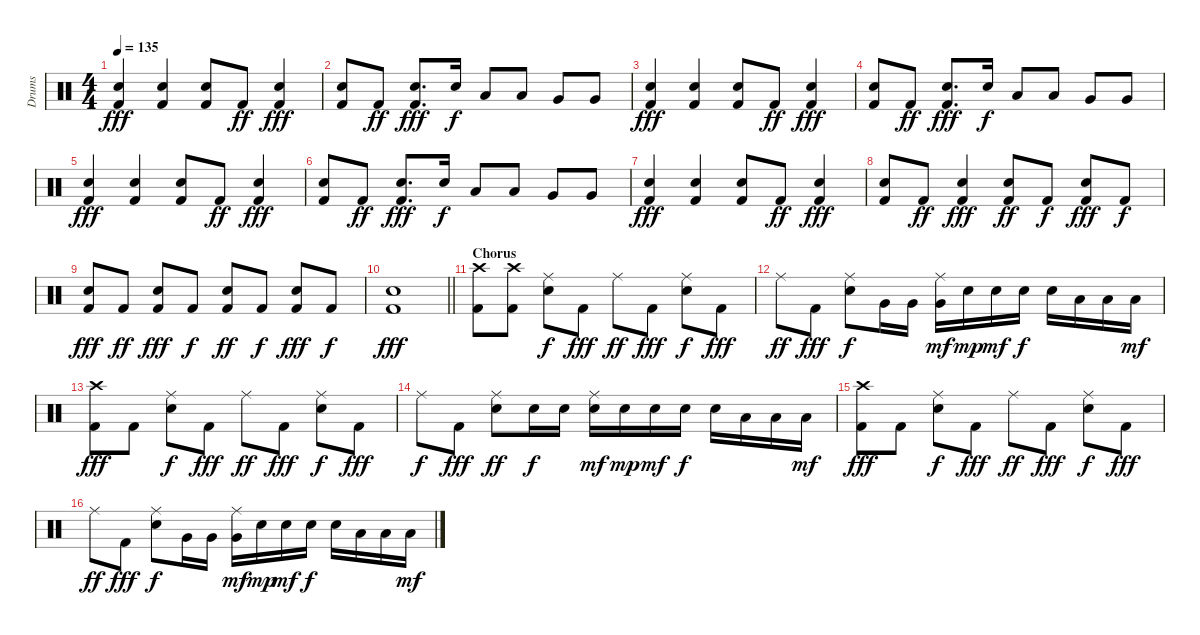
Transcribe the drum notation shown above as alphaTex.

\track ("Drums" "Drums") {instrument percussion}
\staff {score}
\articulation defaults
\ts (4 4)
\tempo 135
\clef neutral
\ks c
("Electric Snare (hit)" "Kick (hit) 2").4{dy fff} ("Electric Snare (hit)" "Kick (hit) 2").4 ("Electric Snare (hit)" "Kick (hit) 2").8 "Kick (hit) 2".8{dy ff} ("Electric Snare (hit)" "Kick (hit) 2").4{dy fff} |
("Electric Snare (hit)" "Kick (hit) 2").8 "Kick (hit) 2".8{dy ff} ("Electric Snare (hit)" "Kick (hit) 2").8{d dy fff} "Electric Snare (hit)".16{dy f} "Low Tom (hit)".8 "Low Tom (hit)".8 "Very Low Tom (hit)".8 "Very Low Tom (hit)".8 |
("Electric Snare (hit)" "Kick (hit) 2").4{dy fff} ("Electric Snare (hit)" "Kick (hit) 2").4 ("Electric Snare (hit)" "Kick (hit) 2").8 "Kick (hit) 2".8{dy ff} ("Electric Snare (hit)" "Kick (hit) 2").4{dy fff} |
("Electric Snare (hit)" "Kick (hit) 2").8 "Kick (hit) 2".8{dy ff} ("Electric Snare (hit)" "Kick (hit) 2").8{d dy fff} "Electric Snare (hit)".16{dy f} "Low Tom (hit)".8 "Low Tom (hit)".8 "Very Low Tom (hit)".8 "Very Low Tom (hit)".8 |
("Electric Snare (hit)" "Kick (hit) 2").4{dy fff} ("Electric Snare (hit)" "Kick (hit) 2").4 ("Electric Snare (hit)" "Kick (hit) 2").8 "Kick (hit) 2".8{dy ff} ("Electric Snare (hit)" "Kick (hit) 2").4{dy fff} |
("Electric Snare (hit)" "Kick (hit) 2").8 "Kick (hit) 2".8{dy ff} ("Electric Snare (hit)" "Kick (hit) 2").8{d dy fff} "Electric Snare (hit)".16{dy f} "Low Tom (hit)".8 "Low Tom (hit)".8 "Very Low Tom (hit)".8 "Very Low Tom (hit)".8 |
("Electric Snare (hit)" "Kick (hit) 2").4{dy fff} ("Electric Snare (hit)" "Kick (hit) 2").4 ("Electric Snare (hit)" "Kick (hit) 2").8 "Kick (hit) 2".8{dy ff} ("Electric Snare (hit)" "Kick (hit) 2").4{dy fff} |
("Electric Snare (hit)" "Kick (hit) 2").8 "Kick (hit) 2".8{dy ff} ("Electric Snare (hit)" "Kick (hit) 2").4{dy fff} ("Electric Snare (hit)" "Kick (hit) 2").8{dy ff} "Kick (hit) 2".8{dy f} ("Electric Snare (hit)" "Kick (hit) 2").8{dy fff} "Kick (hit) 2".8{dy f} |
("Electric Snare (hit)" "Kick (hit) 2").8{dy fff} "Kick (hit) 2".8{dy ff} ("Electric Snare (hit)" "Kick (hit) 2").8{dy fff} "Kick (hit) 2".8{dy f} ("Electric Snare (hit)" "Kick (hit) 2").8{dy ff} "Kick (hit) 2".8{dy f} ("Electric Snare (hit)" "Kick (hit) 2").8{dy fff} "Kick (hit) 2".8{dy f} |
\barLineRight lightlight
("Electric Snare (hit)" "Kick (hit) 2").1{dy fff} |
\section ("" "Chorus")
("Crash high (hit)" "Kick (hit) 2").8 ("Crash high (hit)" "Kick (hit) 2").8 ("Ride (middle)" "Electric Snare (hit)").8{dy f} "Kick (hit) 2".8{dy fff} "Ride (middle)".8{dy ff} "Kick (hit) 2".8{dy fff} ("Ride (middle)" "Electric Snare (hit)").8{dy f} "Kick (hit) 2".8{dy fff} |
"Ride (middle)".8{dy ff} "Kick (hit) 2".8{dy fff} ("Ride (middle)" "Electric Snare (hit)").8{dy f} "Very Low Tom (hit)".16 "Very Low Tom (hit)".16 ("Ride (middle)" "Very Low Tom (hit)").16{dy mf} "Electric Snare (hit)".16{dy mp} "Electric Snare (hit)".16{dy mf} "Electric Snare (hit)".16{dy f} "Electric Snare (hit)".16 "Low Tom (hit)".16 "Low Tom (hit)".16 "Low Tom (hit)".16{dy mf} |
("Crash high (hit)" "Kick (hit) 2").8{dy fff} "Kick (hit) 2".8 ("Ride (middle)" "Electric Snare (hit)").8{dy f} "Kick (hit) 2".8{dy fff} "Ride (middle)".8{dy ff} "Kick (hit) 2".8{dy fff} ("Ride (middle)" "Electric Snare (hit)").8{dy f} "Kick (hit) 2".8{dy fff} |
"Ride (middle)".8{dy f} "Kick (hit) 2".8{dy fff} ("Ride (middle)" "Electric Snare (hit)").8{dy ff} "Electric Snare (hit)".16{dy f} "Electric Snare (hit)".16 ("Ride (middle)" "Electric Snare (hit)").16{dy mf} "Electric Snare (hit)".16{dy mp} "Electric Snare (hit)".16{dy mf} "Electric Snare (hit)".16{dy f} "Electric Snare (hit)".16 "Low Tom (hit)".16 "Low Tom (hit)".16 "Low Tom (hit)".16{dy mf} |
("Crash high (hit)" "Kick (hit) 2").8{dy fff} "Kick (hit) 2".8 ("Ride (middle)" "Electric Snare (hit)").8{dy f} "Kick (hit) 2".8{dy fff} "Ride (middle)".8{dy ff} "Kick (hit) 2".8{dy fff} ("Ride (middle)" "Electric Snare (hit)").8{dy f} "Kick (hit) 2".8{dy fff} |
"Ride (middle)".8{dy ff} "Kick (hit) 2".8{dy fff} ("Ride (middle)" "Electric Snare (hit)").8{dy f} "Very Low Tom (hit)".16 "Very Low Tom (hit)".16 ("Ride (middle)" "Very Low Tom (hit)").16{dy mf} "Electric Snare (hit)".16{dy mp} "Electric Snare (hit)".16{dy mf} "Electric Snare (hit)".16{dy f} "Electric Snare (hit)".16 "Low Tom (hit)".16 "Low Tom (hit)".16 "Low Tom (hit)".16{dy mf}
